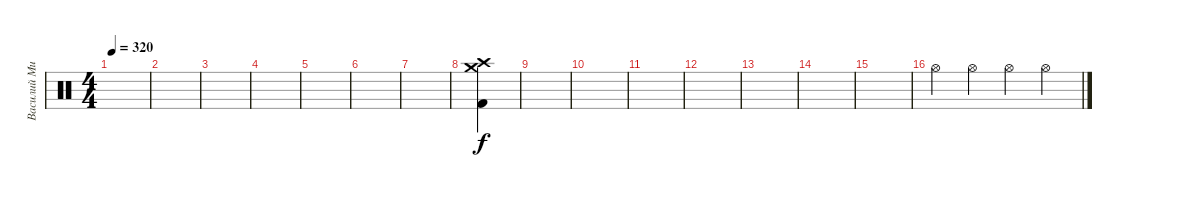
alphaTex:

\track ("Василий Михалыч-ударные" "Василий Ми") {instrument percussion}
\staff {score}
\articulation defaults
\ts (4 4)
\tempo 320
\clef neutral
\ks c
|
|
|
|
|
|
|
("Kick (hit) 2" "Crash high (hit)" "Crash medium (hit)").4 |
|
|
|
|
|
|
|
"Hi-Hat (open)".4 "Hi-Hat (open)".4 "Hi-Hat (open)".4 "Hi-Hat (open)".4
